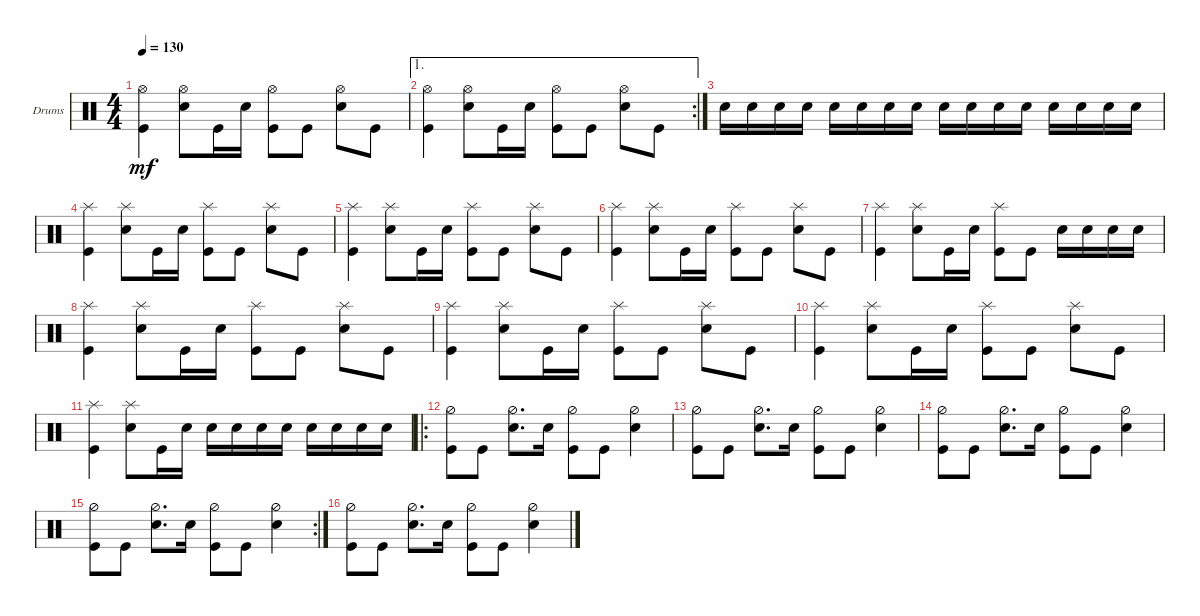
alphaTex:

\defaultSystemsLayout 4
\bracketExtendMode groupsimilarinstruments
\firstSystemTrackNameOrientation horizontal
\otherSystemsTrackNameOrientation horizontal
\track ("Drumkit" "Drums") {instrument percussion}
\staff {score}
\articulation defaults
\ts (4 4)
\tempo 130
\clef neutral
\ks c
("Kick (hit)" "Hi-Hat (open)").4{dy mf} ("Hi-Hat (open)" "Snare (hit) 2").8 "Kick (hit)".16 "Snare (hit) 2".16 ("Kick (hit)" "Hi-Hat (open)").8 "Kick (hit)".8 ("Snare (hit) 2" "Hi-Hat (open)").8 "Kick (hit)".8 |
\ae 1
\rc 2
("Kick (hit)" "Hi-Hat (open)").4 ("Hi-Hat (open)" "Snare (hit) 2").8 "Kick (hit)".16 "Snare (hit) 2".16 ("Kick (hit)" "Hi-Hat (open)").8 "Kick (hit)".8 ("Snare (hit) 2" "Hi-Hat (open)").8 "Kick (hit)".8 |
"Snare (hit) 2".16 "Snare (hit) 2".16 "Snare (hit) 2".16 "Snare (hit) 2".16 "Snare (hit) 2".16 "Snare (hit) 2".16 "Snare (hit) 2".16 "Snare (hit) 2".16 "Snare (hit) 2".16 "Snare (hit) 2".16 "Snare (hit) 2".16 "Snare (hit) 2".16 "Snare (hit) 2".16 "Snare (hit) 2".16 "Snare (hit) 2".16 "Snare (hit) 2".16 |
("Kick (hit)" "Splash (hit)").4 ("Snare (hit) 2" "Splash (hit)").8 "Kick (hit)".16 "Snare (hit) 2".16 ("Kick (hit)" "Splash (hit)").8 "Kick (hit)".8 ("Snare (hit) 2" "Splash (hit)").8 "Kick (hit)".8 |
("Kick (hit)" "Splash (hit)").4 ("Snare (hit) 2" "Splash (hit)").8 "Kick (hit)".16 "Snare (hit) 2".16 ("Kick (hit)" "Splash (hit)").8 "Kick (hit)".8 ("Snare (hit) 2" "Splash (hit)").8 "Kick (hit)".8 |
("Kick (hit)" "Splash (hit)").4 ("Snare (hit) 2" "Splash (hit)").8 "Kick (hit)".16 "Snare (hit) 2".16 ("Kick (hit)" "Splash (hit)").8 "Kick (hit)".8 ("Snare (hit) 2" "Splash (hit)").8 "Kick (hit)".8 |
("Kick (hit)" "Splash (hit)").4 ("Snare (hit) 2" "Splash (hit)").8 "Kick (hit)".16 "Snare (hit) 2".16 ("Kick (hit)" "Splash (hit)").8 "Kick (hit)".8 "Snare (hit) 2".16 "Snare (hit) 2".16 "Snare (hit) 2".16 "Snare (hit) 2".16 |
("Kick (hit)" "Splash (hit)").4 ("Snare (hit) 2" "Splash (hit)").8 "Kick (hit)".16 "Snare (hit) 2".16 ("Kick (hit)" "Splash (hit)").8 "Kick (hit)".8 ("Snare (hit) 2" "Splash (hit)").8 "Kick (hit)".8 |
("Kick (hit)" "Splash (hit)").4 ("Snare (hit) 2" "Splash (hit)").8 "Kick (hit)".16 "Snare (hit) 2".16 ("Kick (hit)" "Splash (hit)").8 "Kick (hit)".8 ("Snare (hit) 2" "Splash (hit)").8 "Kick (hit)".8 |
("Kick (hit)" "Splash (hit)").4 ("Snare (hit) 2" "Splash (hit)").8 "Kick (hit)".16 "Snare (hit) 2".16 ("Kick (hit)" "Splash (hit)").8 "Kick (hit)".8 ("Snare (hit) 2" "Splash (hit)").8 "Kick (hit)".8 |
("Kick (hit)" "Splash (hit)").4 ("Snare (hit) 2" "Splash (hit)").8 "Kick (hit)".16 "Snare (hit) 2".16 "Snare (hit) 2".16 "Snare (hit) 2".16 "Snare (hit) 2".16 "Snare (hit) 2".16 "Snare (hit) 2".16 "Snare (hit) 2".16 "Snare (hit) 2".16 "Snare (hit) 2".16 |
\ro
("Kick (hit)" "Hi-Hat (half)").8 "Kick (hit)".8 ("Hi-Hat (half)" "Snare (hit) 2").8{d} "Snare (hit) 2".16 ("Kick (hit)" "Hi-Hat (half)").8 "Kick (hit)".8 ("Snare (hit) 2" "Hi-Hat (half)").4 |
("Kick (hit)" "Hi-Hat (half)").8 "Kick (hit)".8 ("Hi-Hat (half)" "Snare (hit) 2").8{d} "Snare (hit) 2".16 ("Kick (hit)" "Hi-Hat (half)").8 "Kick (hit)".8 ("Snare (hit) 2" "Hi-Hat (half)").4 |
("Kick (hit)" "Hi-Hat (half)").8 "Kick (hit)".8 ("Hi-Hat (half)" "Snare (hit) 2").8{d} "Snare (hit) 2".16 ("Kick (hit)" "Hi-Hat (half)").8 "Kick (hit)".8 ("Snare (hit) 2" "Hi-Hat (half)").4 |
\rc 2
("Kick (hit)" "Hi-Hat (half)").8 "Kick (hit)".8 ("Hi-Hat (half)" "Snare (hit) 2").8{d} "Snare (hit) 2".16 ("Kick (hit)" "Hi-Hat (half)").8 "Kick (hit)".8 ("Snare (hit) 2" "Hi-Hat (half)").4 |
("Kick (hit)" "Hi-Hat (half)").8 "Kick (hit)".8 ("Hi-Hat (half)" "Snare (hit) 2").8{d} "Snare (hit) 2".16 ("Kick (hit)" "Hi-Hat (half)").8 "Kick (hit)".8 ("Snare (hit) 2" "Hi-Hat (half)").4
